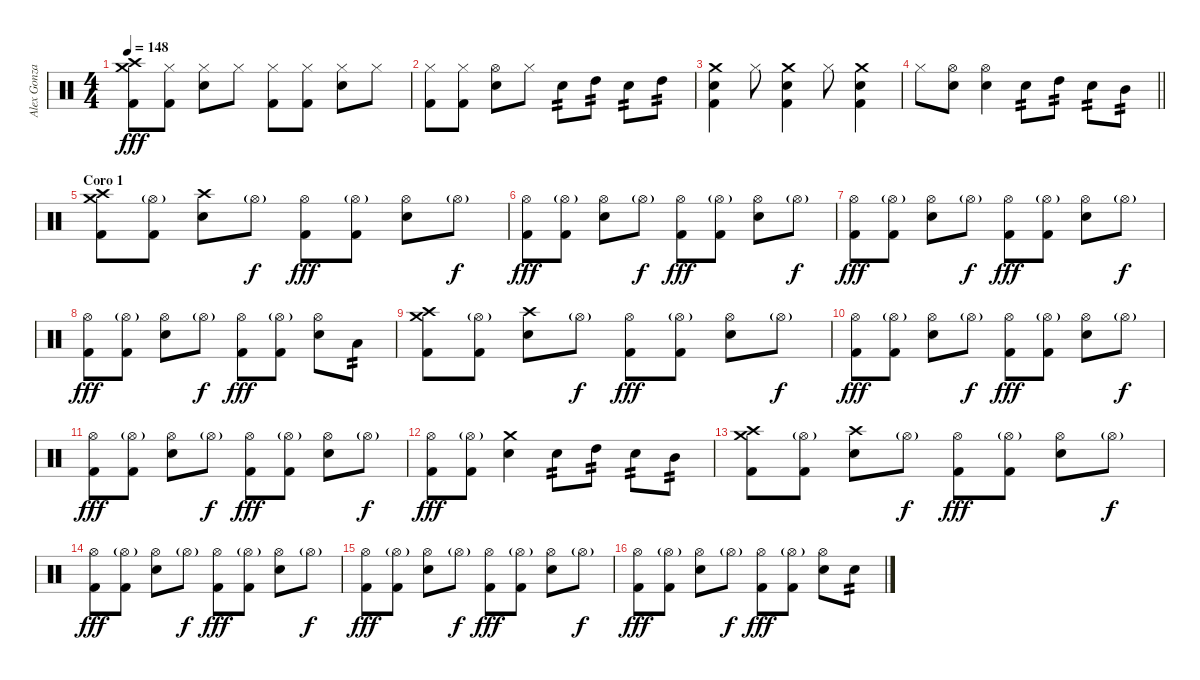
\track ("Alex Gonzalez" "Alex Gonza") {instrument percussion}
\staff {score}
\articulation defaults
\ts (4 4)
\tempo 148
\clef neutral
\ks c
("Crash medium (hit)" "Crash high (hit)" "Kick (hit) 2").8{dy fff} ("Hi-Hat (closed)" "Kick (hit) 2").8 ("Hi-Hat (closed)" "Snare (hit) 2").8 "Hi-Hat (closed)".8 ("Hi-Hat (closed)" "Kick (hit) 2").8 ("Hi-Hat (closed)" "Kick (hit) 2").8 ("Hi-Hat (closed)" "Snare (hit) 2").8 "Hi-Hat (closed)".8 |
("Hi-Hat (closed)" "Kick (hit) 2").8 ("Hi-Hat (closed)" "Kick (hit) 2").8 ("Hi-Hat (open)" "Snare (hit) 2").8 "Hi-Hat (closed)".8 "Snare (hit) 2".8{tp 2} "High Tom (hit)".8{tp 2} "Snare (hit) 2".8{tp 2} "High Tom (hit)".8{tp 2} |
("Crash medium (hit)" "Snare (hit) 2" "Kick (hit) 2").4 "Hi-Hat (closed)".8 ("Crash medium (hit)" "Snare (hit) 2" "Kick (hit) 2").4 "Hi-Hat (closed)".8 ("Crash medium (hit)" "Snare (hit) 2" "Kick (hit) 2").4 |
\barLineRight lightlight "Hi-Hat (closed)".8
("Hi-Hat (open)" "Snare (hit) 2").8 ("Hi-Hat (open)" "Snare (hit) 2").4 "Snare (hit) 2".8{tp 2} "High Tom (hit)".8{tp 2} "Snare (hit) 2".8{tp 2} "Mid Tom (hit)".8{tp 2} |
\section ("" "Coro 1")
("Crash medium (hit)" "Crash high (hit)" "Kick (hit) 2").8 ("Hi-Hat (open)"{g} "Kick (hit) 2").8 ("Crash high (hit)" "Snare (hit) 2").8 "Hi-Hat (open)"{g}.8{dy f} ("Hi-Hat (open)" "Kick (hit) 2").8{dy fff} ("Hi-Hat (open)"{g} "Kick (hit) 2").8 ("Hi-Hat (open)" "Snare (hit) 2").8 "Hi-Hat (open)"{g}.8{dy f} |
("Hi-Hat (open)" "Kick (hit) 2").8{dy fff} ("Hi-Hat (open)"{g} "Kick (hit) 2").8 ("Hi-Hat (open)" "Snare (hit) 2").8 "Hi-Hat (open)"{g}.8{dy f} ("Hi-Hat (open)" "Kick (hit) 2").8{dy fff} ("Hi-Hat (open)"{g} "Kick (hit) 2").8 ("Hi-Hat (open)" "Snare (hit) 2").8 "Hi-Hat (open)"{g}.8{dy f} |
("Hi-Hat (open)" "Kick (hit) 2").8{dy fff} ("Hi-Hat (open)"{g} "Kick (hit) 2").8 ("Hi-Hat (open)" "Snare (hit) 2").8 "Hi-Hat (open)"{g}.8{dy f} ("Hi-Hat (open)" "Kick (hit) 2").8{dy fff} ("Hi-Hat (open)"{g} "Kick (hit) 2").8 ("Hi-Hat (open)" "Snare (hit) 2").8 "Hi-Hat (open)"{g}.8{dy f} |
("Hi-Hat (open)" "Kick (hit) 2").8{dy fff} ("Hi-Hat (open)"{g} "Kick (hit) 2").8 ("Hi-Hat (open)" "Snare (hit) 2").8 "Hi-Hat (open)"{g}.8{dy f} ("Hi-Hat (open)" "Kick (hit) 2").8{dy fff} ("Hi-Hat (open)"{g} "Kick (hit) 2").8 ("Hi-Hat (open)" "Snare (hit) 2").8 "Low Tom (hit)".8{tp 2} |
("Crash medium (hit)" "Crash high (hit)" "Kick (hit) 2").8 ("Hi-Hat (open)"{g} "Kick (hit) 2").8 ("Crash high (hit)" "Snare (hit) 2").8 "Hi-Hat (open)"{g}.8{dy f} ("Hi-Hat (open)" "Kick (hit) 2").8{dy fff} ("Hi-Hat (open)"{g} "Kick (hit) 2").8 ("Hi-Hat (open)" "Snare (hit) 2").8 "Hi-Hat (open)"{g}.8{dy f} |
("Hi-Hat (open)" "Kick (hit) 2").8{dy fff} ("Hi-Hat (open)"{g} "Kick (hit) 2").8 ("Hi-Hat (open)" "Snare (hit) 2").8 "Hi-Hat (open)"{g}.8{dy f} ("Hi-Hat (open)" "Kick (hit) 2").8{dy fff} ("Hi-Hat (open)"{g} "Kick (hit) 2").8 ("Hi-Hat (open)" "Snare (hit) 2").8 "Hi-Hat (open)"{g}.8{dy f} |
("Hi-Hat (open)" "Kick (hit) 2").8{dy fff} ("Hi-Hat (open)"{g} "Kick (hit) 2").8 ("Hi-Hat (open)" "Snare (hit) 2").8 "Hi-Hat (open)"{g}.8{dy f} ("Hi-Hat (open)" "Kick (hit) 2").8{dy fff} ("Hi-Hat (open)"{g} "Kick (hit) 2").8 ("Hi-Hat (open)" "Snare (hit) 2").8 "Hi-Hat (open)"{g}.8{dy f} |
("Hi-Hat (open)" "Kick (hit) 2").8{dy fff} ("Hi-Hat (open)"{g} "Kick (hit) 2").8 ("Crash medium (hit)" "Snare (hit) 2").4 "Snare (hit) 2".8{tp 2} "High Tom (hit)".8{tp 2} "Snare (hit) 2".8{tp 2} "Mid Tom (hit)".8{tp 2} |
("Crash medium (hit)" "Crash high (hit)" "Kick (hit) 2").8 ("Hi-Hat (open)"{g} "Kick (hit) 2").8 ("Crash high (hit)" "Snare (hit) 2").8 "Hi-Hat (open)"{g}.8{dy f} ("Hi-Hat (open)" "Kick (hit) 2").8{dy fff} ("Hi-Hat (open)"{g} "Kick (hit) 2").8 ("Hi-Hat (open)" "Snare (hit) 2").8 "Hi-Hat (open)"{g}.8{dy f} |
("Hi-Hat (open)" "Kick (hit) 2").8{dy fff} ("Hi-Hat (open)"{g} "Kick (hit) 2").8 ("Hi-Hat (open)" "Snare (hit) 2").8 "Hi-Hat (open)"{g}.8{dy f} ("Hi-Hat (open)" "Kick (hit) 2").8{dy fff} ("Hi-Hat (open)"{g} "Kick (hit) 2").8 ("Hi-Hat (open)" "Snare (hit) 2").8 "Hi-Hat (open)"{g}.8{dy f} |
("Hi-Hat (open)" "Kick (hit) 2").8{dy fff} ("Hi-Hat (open)"{g} "Kick (hit) 2").8 ("Hi-Hat (open)" "Snare (hit) 2").8 "Hi-Hat (open)"{g}.8{dy f} ("Hi-Hat (open)" "Kick (hit) 2").8{dy fff} ("Hi-Hat (open)"{g} "Kick (hit) 2").8 ("Hi-Hat (open)" "Snare (hit) 2").8 "Hi-Hat (open)"{g}.8{dy f} |
("Hi-Hat (open)" "Kick (hit) 2").8{dy fff} ("Hi-Hat (open)"{g} "Kick (hit) 2").8 ("Hi-Hat (open)" "Snare (hit) 2").8 "Hi-Hat (open)"{g}.8{dy f} ("Hi-Hat (open)" "Kick (hit) 2").8{dy fff} ("Hi-Hat (open)"{g} "Kick (hit) 2").8 ("Hi-Hat (open)" "Snare (hit) 2").8 "Snare (hit) 2".8{tp 2}
